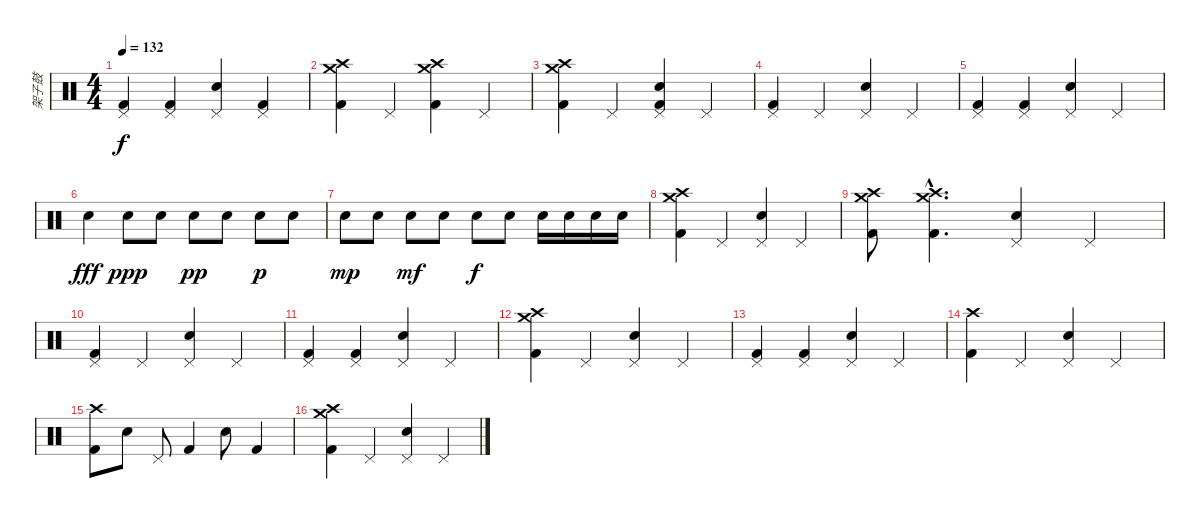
\track ("架子鼓" "架子鼓") {instrument percussion}
\staff {score}
\articulation defaults
\ts (4 4)
\tempo 132
\clef neutral
\ks c
("Pedal Hi-Hat (hit)" "Kick (hit) 2").4{dy f} ("Pedal Hi-Hat (hit)" "Kick (hit) 2").4 ("Electric Snare (hit)" "Pedal Hi-Hat (hit)").4 ("Pedal Hi-Hat (hit)" "Kick (hit) 2").4 |
("Crash medium (hit)" "Crash high (hit)" "Kick (hit) 2").4 "Pedal Hi-Hat (hit)".4 ("Crash medium (hit)" "Crash high (hit)" "Kick (hit) 2").4 "Pedal Hi-Hat (hit)".4 |
("Crash medium (hit)" "Crash high (hit)" "Kick (hit) 2").4 "Pedal Hi-Hat (hit)".4 ("Electric Snare (hit)" "Pedal Hi-Hat (hit)" "Kick (hit) 2").4 "Pedal Hi-Hat (hit)".4 |
("Pedal Hi-Hat (hit)" "Kick (hit) 2").4 "Pedal Hi-Hat (hit)".4 ("Electric Snare (hit)" "Pedal Hi-Hat (hit)").4 "Pedal Hi-Hat (hit)".4 |
("Pedal Hi-Hat (hit)" "Kick (hit) 2").4 ("Pedal Hi-Hat (hit)" "Kick (hit) 2").4 ("Electric Snare (hit)" "Pedal Hi-Hat (hit)").4 "Pedal Hi-Hat (hit)".4 |
"Electric Snare (hit)".4{dy fff} "Electric Snare (hit)".8{dy ppp} "Electric Snare (hit)".8 "Electric Snare (hit)".8{dy pp} "Electric Snare (hit)".8 "Electric Snare (hit)".8{dy p} "Electric Snare (hit)".8 |
"Electric Snare (hit)".8{dy mp} "Electric Snare (hit)".8 "Electric Snare (hit)".8{dy mf} "Electric Snare (hit)".8 "Electric Snare (hit)".8{dy f} "Electric Snare (hit)".8 "Electric Snare (hit)".16 "Electric Snare (hit)".16 "Electric Snare (hit)".16 "Electric Snare (hit)".16 |
("Crash medium (hit)" "Crash high (hit)" "Kick (hit) 2").4 "Pedal Hi-Hat (hit)".4 ("Pedal Hi-Hat (hit)" "Electric Snare (hit)").4 "Pedal Hi-Hat (hit)".4 |
("Crash medium (hit)" "Crash high (hit)" "Kick (hit) 2").8 ("Crash medium (hit)"{hac} "Crash high (hit)"{hac} "Kick (hit) 2"{hac}).4{d} ("Pedal Hi-Hat (hit)" "Electric Snare (hit)").4 "Pedal Hi-Hat (hit)".4 |
("Pedal Hi-Hat (hit)" "Kick (hit) 2").4 "Pedal Hi-Hat (hit)".4 ("Pedal Hi-Hat (hit)" "Electric Snare (hit)").4 "Pedal Hi-Hat (hit)".4 |
("Pedal Hi-Hat (hit)" "Kick (hit) 2").4 ("Pedal Hi-Hat (hit)" "Kick (hit) 2").4 ("Pedal Hi-Hat (hit)" "Electric Snare (hit)").4 "Pedal Hi-Hat (hit)".4 |
("Crash medium (hit)" "Crash high (hit)" "Kick (hit) 2").4 "Pedal Hi-Hat (hit)".4 ("Pedal Hi-Hat (hit)" "Electric Snare (hit)").4 "Pedal Hi-Hat (hit)".4 |
("Pedal Hi-Hat (hit)" "Kick (hit) 2").4 ("Pedal Hi-Hat (hit)" "Kick (hit) 2").4 ("Pedal Hi-Hat (hit)" "Electric Snare (hit)").4 "Pedal Hi-Hat (hit)".4 |
("Crash high (hit)" "Kick (hit) 2").4 "Pedal Hi-Hat (hit)".4 ("Electric Snare (hit)" "Pedal Hi-Hat (hit)").4 "Pedal Hi-Hat (hit)".4 |
("Crash high (hit)" "Kick (hit) 2").8 "Electric Snare (hit)".8 "Pedal Hi-Hat (hit)".8 "Kick (hit) 2".4 "Electric Snare (hit)".8 "Kick (hit) 2".4 |
("Crash medium (hit)" "Crash high (hit)" "Kick (hit) 2").4 "Pedal Hi-Hat (hit)".4 ("Pedal Hi-Hat (hit)" "Electric Snare (hit)").4 "Pedal Hi-Hat (hit)".4
